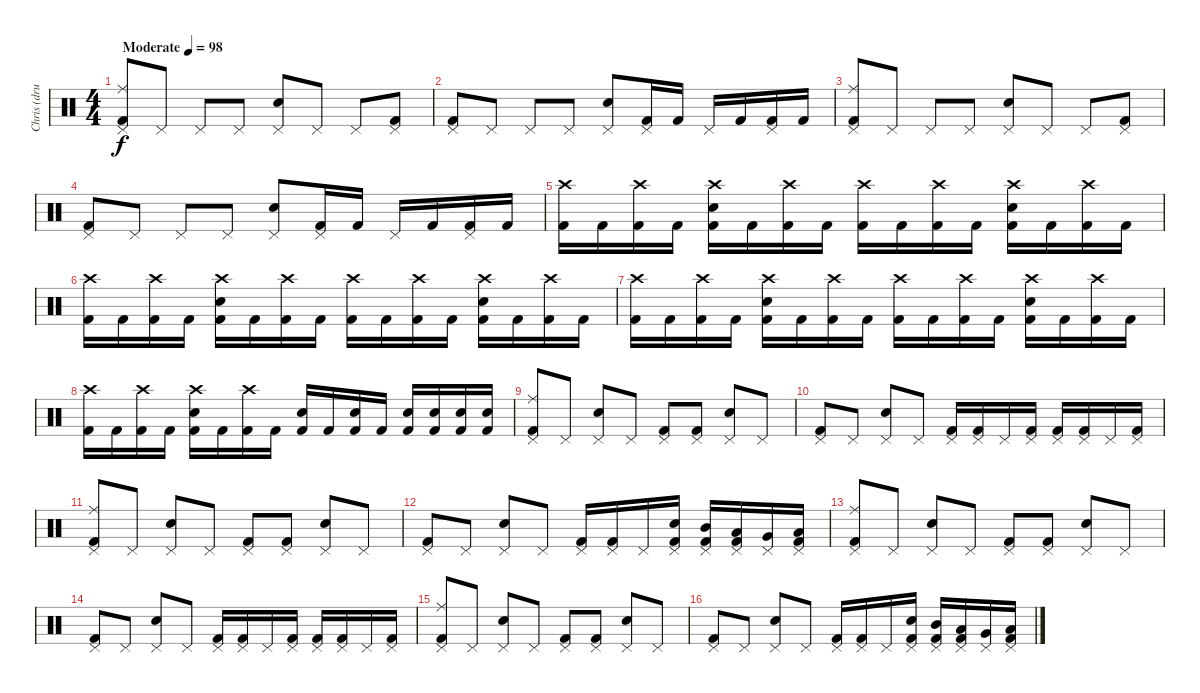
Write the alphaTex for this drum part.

\track ("Chris (drums)" "Chris (dru") {instrument percussion}
\staff {score}
\articulation defaults
\ts (4 4)
\tempo (98 "Moderate")
\clef neutral
\ks c
("Ride (middle)" "Pedal Hi-Hat (hit)" "Kick (hit) 2").8{dy f} "Pedal Hi-Hat (hit)".8 "Pedal Hi-Hat (hit)".8 "Pedal Hi-Hat (hit)".8 ("Pedal Hi-Hat (hit)" "Electric Snare (hit)").8 "Pedal Hi-Hat (hit)".8 "Pedal Hi-Hat (hit)".8 ("Pedal Hi-Hat (hit)" "Kick (hit) 2").8 |
("Pedal Hi-Hat (hit)" "Kick (hit) 2").8 "Pedal Hi-Hat (hit)".8 "Pedal Hi-Hat (hit)".8 "Pedal Hi-Hat (hit)".8 ("Pedal Hi-Hat (hit)" "Electric Snare (hit)").8 ("Pedal Hi-Hat (hit)" "Kick (hit) 2").16 "Kick (hit) 2".16 "Pedal Hi-Hat (hit)".16 "Kick (hit) 2".16 ("Pedal Hi-Hat (hit)" "Kick (hit) 2").16 "Kick (hit) 2".16 |
("Ride (middle)" "Pedal Hi-Hat (hit)" "Kick (hit) 2").8 "Pedal Hi-Hat (hit)".8 "Pedal Hi-Hat (hit)".8 "Pedal Hi-Hat (hit)".8 ("Pedal Hi-Hat (hit)" "Electric Snare (hit)").8 "Pedal Hi-Hat (hit)".8 "Pedal Hi-Hat (hit)".8 ("Pedal Hi-Hat (hit)" "Kick (hit) 2").8 |
("Pedal Hi-Hat (hit)" "Kick (hit) 2").8 "Pedal Hi-Hat (hit)".8 "Pedal Hi-Hat (hit)".8 "Pedal Hi-Hat (hit)".8 ("Pedal Hi-Hat (hit)" "Electric Snare (hit)").8 ("Pedal Hi-Hat (hit)" "Kick (hit) 2").16 "Kick (hit) 2".16 "Pedal Hi-Hat (hit)".16 "Kick (hit) 2".16 ("Pedal Hi-Hat (hit)" "Kick (hit) 2").16 "Kick (hit) 2".16 |
("Crash high (hit)" "Kick (hit) 2").16 "Kick (hit) 2".16 ("Crash high (hit)" "Kick (hit) 2").16 "Kick (hit) 2".16 ("Crash high (hit)" "Electric Snare (hit)" "Kick (hit) 2").16 "Kick (hit) 2".16 ("Crash high (hit)" "Kick (hit) 2").16 "Kick (hit) 2".16 ("Crash high (hit)" "Kick (hit) 2").16 "Kick (hit) 2".16 ("Crash high (hit)" "Kick (hit) 2").16 "Kick (hit) 2".16 ("Crash high (hit)" "Electric Snare (hit)" "Kick (hit) 2").16 "Kick (hit) 2".16 ("Crash high (hit)" "Kick (hit) 2").16 "Kick (hit) 2".16 |
("Crash high (hit)" "Kick (hit) 2").16 "Kick (hit) 2".16 ("Crash high (hit)" "Kick (hit) 2").16 "Kick (hit) 2".16 ("Crash high (hit)" "Electric Snare (hit)" "Kick (hit) 2").16 "Kick (hit) 2".16 ("Crash high (hit)" "Kick (hit) 2").16 "Kick (hit) 2".16 ("Crash high (hit)" "Kick (hit) 2").16 "Kick (hit) 2".16 ("Crash high (hit)" "Kick (hit) 2").16 "Kick (hit) 2".16 ("Crash high (hit)" "Electric Snare (hit)" "Kick (hit) 2").16 "Kick (hit) 2".16 ("Crash high (hit)" "Kick (hit) 2").16 "Kick (hit) 2".16 |
("Crash high (hit)" "Kick (hit) 2").16 "Kick (hit) 2".16 ("Crash high (hit)" "Kick (hit) 2").16 "Kick (hit) 2".16 ("Crash high (hit)" "Electric Snare (hit)" "Kick (hit) 2").16 "Kick (hit) 2".16 ("Crash high (hit)" "Kick (hit) 2").16 "Kick (hit) 2".16 ("Crash high (hit)" "Kick (hit) 2").16 "Kick (hit) 2".16 ("Crash high (hit)" "Kick (hit) 2").16 "Kick (hit) 2".16 ("Crash high (hit)" "Electric Snare (hit)" "Kick (hit) 2").16 "Kick (hit) 2".16 ("Crash high (hit)" "Kick (hit) 2").16 "Kick (hit) 2".16 |
("Crash high (hit)" "Kick (hit) 2").16 "Kick (hit) 2".16 ("Crash high (hit)" "Kick (hit) 2").16 "Kick (hit) 2".16 ("Crash high (hit)" "Electric Snare (hit)" "Kick (hit) 2").16 "Kick (hit) 2".16 ("Crash high (hit)" "Kick (hit) 2").16 "Kick (hit) 2".16 ("Electric Snare (hit)" "Kick (hit) 2").16 "Kick (hit) 2".16 ("Electric Snare (hit)" "Kick (hit) 2").16 "Kick (hit) 2".16 ("Electric Snare (hit)" "Kick (hit) 2").16 ("Electric Snare (hit)" "Kick (hit) 2").16 ("Electric Snare (hit)" "Kick (hit) 2").16 ("Electric Snare (hit)" "Kick (hit) 2").16 |
("Ride (middle)" "Pedal Hi-Hat (hit)" "Kick (hit) 2").8 "Pedal Hi-Hat (hit)".8 ("Pedal Hi-Hat (hit)" "Electric Snare (hit)").8 "Pedal Hi-Hat (hit)".8 ("Pedal Hi-Hat (hit)" "Kick (hit) 2").8 ("Pedal Hi-Hat (hit)" "Kick (hit) 2").8 ("Pedal Hi-Hat (hit)" "Electric Snare (hit)").8 "Pedal Hi-Hat (hit)".8 |
("Pedal Hi-Hat (hit)" "Kick (hit) 2").8 "Pedal Hi-Hat (hit)".8 ("Pedal Hi-Hat (hit)" "Electric Snare (hit)").8 "Pedal Hi-Hat (hit)".8 ("Pedal Hi-Hat (hit)" "Kick (hit) 2").16 ("Pedal Hi-Hat (hit)" "Kick (hit) 2").16 "Pedal Hi-Hat (hit)".16 ("Pedal Hi-Hat (hit)" "Kick (hit) 2").16 ("Pedal Hi-Hat (hit)" "Kick (hit) 2").16 ("Pedal Hi-Hat (hit)" "Kick (hit) 2").16 "Pedal Hi-Hat (hit)".16 ("Pedal Hi-Hat (hit)" "Kick (hit) 2").16 |
("Ride (middle)" "Pedal Hi-Hat (hit)" "Kick (hit) 2").8 "Pedal Hi-Hat (hit)".8 ("Pedal Hi-Hat (hit)" "Electric Snare (hit)").8 "Pedal Hi-Hat (hit)".8 ("Pedal Hi-Hat (hit)" "Kick (hit) 2").8 ("Pedal Hi-Hat (hit)" "Kick (hit) 2").8 ("Pedal Hi-Hat (hit)" "Electric Snare (hit)").8 "Pedal Hi-Hat (hit)".8 |
("Pedal Hi-Hat (hit)" "Kick (hit) 2").8 "Pedal Hi-Hat (hit)".8 ("Pedal Hi-Hat (hit)" "Electric Snare (hit)").8 "Pedal Hi-Hat (hit)".8 ("Pedal Hi-Hat (hit)" "Kick (hit) 2").16 ("Pedal Hi-Hat (hit)" "Kick (hit) 2").16 "Pedal Hi-Hat (hit)".16 ("Pedal Hi-Hat (hit)" "Electric Snare (hit)" "Kick (hit) 2").16 ("Pedal Hi-Hat (hit)" "Mid Tom (hit)" "Kick (hit) 2").16 ("Pedal Hi-Hat (hit)" "Low Tom (hit)" "Kick (hit) 2").16 ("Pedal Hi-Hat (hit)" "Very Low Tom (hit)").16 ("Pedal Hi-Hat (hit)" "Low Floor Tom (hit)" "Kick (hit) 2").16 |
("Ride (middle)" "Pedal Hi-Hat (hit)" "Kick (hit) 2").8 "Pedal Hi-Hat (hit)".8 ("Pedal Hi-Hat (hit)" "Electric Snare (hit)").8 "Pedal Hi-Hat (hit)".8 ("Pedal Hi-Hat (hit)" "Kick (hit) 2").8 ("Pedal Hi-Hat (hit)" "Kick (hit) 2").8 ("Pedal Hi-Hat (hit)" "Electric Snare (hit)").8 "Pedal Hi-Hat (hit)".8 |
("Pedal Hi-Hat (hit)" "Kick (hit) 2").8 "Pedal Hi-Hat (hit)".8 ("Pedal Hi-Hat (hit)" "Electric Snare (hit)").8 "Pedal Hi-Hat (hit)".8 ("Pedal Hi-Hat (hit)" "Kick (hit) 2").16 ("Pedal Hi-Hat (hit)" "Kick (hit) 2").16 "Pedal Hi-Hat (hit)".16 ("Pedal Hi-Hat (hit)" "Kick (hit) 2").16 ("Pedal Hi-Hat (hit)" "Kick (hit) 2").16 ("Pedal Hi-Hat (hit)" "Kick (hit) 2").16 "Pedal Hi-Hat (hit)".16 ("Pedal Hi-Hat (hit)" "Kick (hit) 2").16 |
("Ride (middle)" "Pedal Hi-Hat (hit)" "Kick (hit) 2").8 "Pedal Hi-Hat (hit)".8 ("Pedal Hi-Hat (hit)" "Electric Snare (hit)").8 "Pedal Hi-Hat (hit)".8 ("Pedal Hi-Hat (hit)" "Kick (hit) 2").8 ("Pedal Hi-Hat (hit)" "Kick (hit) 2").8 ("Pedal Hi-Hat (hit)" "Electric Snare (hit)").8 "Pedal Hi-Hat (hit)".8 |
("Pedal Hi-Hat (hit)" "Kick (hit) 2").8 "Pedal Hi-Hat (hit)".8 ("Pedal Hi-Hat (hit)" "Electric Snare (hit)").8 "Pedal Hi-Hat (hit)".8 ("Pedal Hi-Hat (hit)" "Kick (hit) 2").16 ("Pedal Hi-Hat (hit)" "Kick (hit) 2").16 "Pedal Hi-Hat (hit)".16 ("Pedal Hi-Hat (hit)" "Electric Snare (hit)" "Kick (hit) 2").16 ("Pedal Hi-Hat (hit)" "Mid Tom (hit)" "Kick (hit) 2").16 ("Pedal Hi-Hat (hit)" "Low Tom (hit)" "Kick (hit) 2").16 ("Pedal Hi-Hat (hit)" "Very Low Tom (hit)").16 ("Pedal Hi-Hat (hit)" "Low Floor Tom (hit)" "Kick (hit) 2").16
